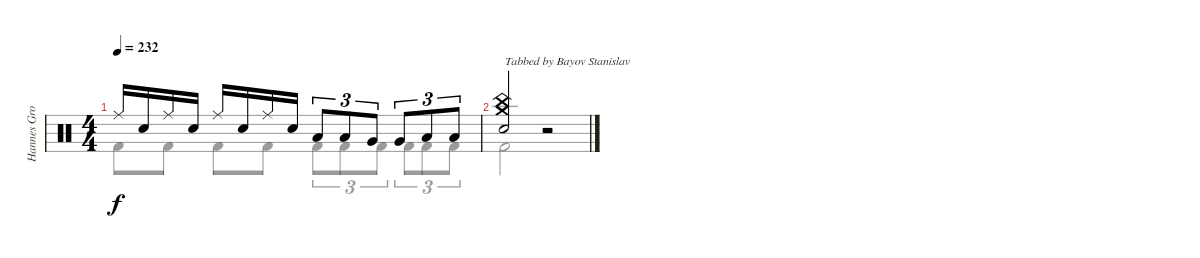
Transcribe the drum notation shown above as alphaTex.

\track ("Hannes Grossman" "Hannes Gro") {instrument percussion}
\staff {score}
\articulation defaults
\voice
\ts (4 4)
\tempo 232
\clef neutral
\ks c "Ride (middle)".16{dy f} "Electric Snare (hit)".16 "Ride (middle)".16 "Electric Snare (hit)".16 "Ride (middle)".16 "Electric Snare (hit)".16 "Ride (middle)".16 "Electric Snare (hit)".16 "Low Tom (hit)".8{tu (3 2)} "Low Tom (hit)".8{tu (3 2)} "Very Low Tom (hit)".8{tu (3 2)} "Very Low Tom (hit)".8{tu (3 2)} "Low Tom (hit)".8{tu (3 2)} "Low Tom (hit)".8{tu (3 2)}
|
("China (hit)" "Crash medium (hit)" "Electric Snare (hit)").2{txt "Tabbed by Bayov Stanislav"} r.2
\voice
\clef neutral
\ottava regular
\simile none
\ks c "Kick (hit) 2".8{dy f} "Kick (hit) 2".8 "Kick (hit) 2".8 "Kick (hit) 2".8 "Kick (hit) 2".8{tu (3 2)} "Kick (hit) 2".8{tu (3 2)} "Kick (hit) 2".8{tu (3 2)} "Kick (hit) 2".8{tu (3 2)} "Kick (hit) 2".8{tu (3 2)} "Kick (hit) 2".8{tu (3 2)}
|
"Kick (hit) 2".2 r.2
